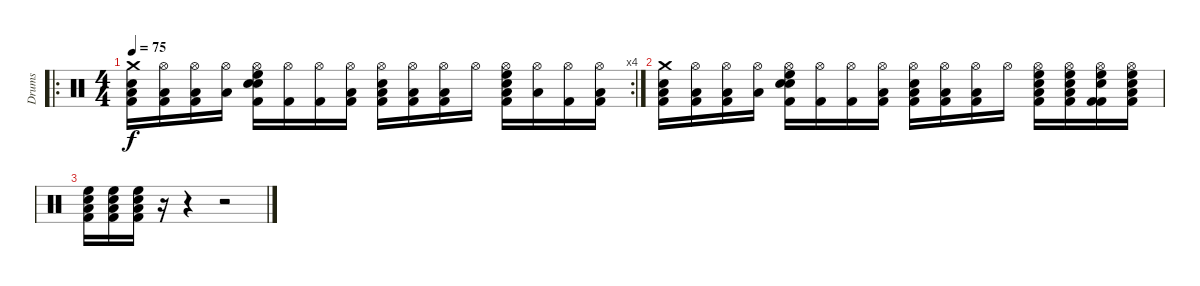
\track ("Drums" "Drums") {instrument percussion}
\staff {score}
\articulation defaults
\ro
\rc 4
\ts (4 4)
\tempo 75
\clef neutral
\ks c
("Crash medium (hit)" "Low Tom (hit)" "Snare (hit) 2" "Kick (hit) 2").16{dy f} ("Hi-Hat (open)" "Low Tom (hit)" "Kick (hit) 2").16 ("Hi-Hat (open)" "Low Tom (hit)" "Kick (hit) 2").16 ("Hi-Hat (open)" "Low Tom (hit)").16 ("High Floor Tom (hit)" "Hi-Hat (open)" "Snare (hit) 2" "Electric Snare (hit)" "Kick (hit) 2").16 ("Hi-Hat (open)" "Kick (hit) 2").16 ("Hi-Hat (open)" "Kick (hit) 2").16 ("Hi-Hat (open)" "Low Tom (hit)" "Kick (hit) 2").16 ("Hi-Hat (open)" "Snare (hit) 2" "Kick (hit) 2" "Low Tom (hit)").16 ("Hi-Hat (open)" "Low Tom (hit)" "Kick (hit) 2").16 ("Hi-Hat (open)" "Low Tom (hit)" "Kick (hit) 2").16 "Hi-Hat (open)".16 ("High Floor Tom (hit)" "Hi-Hat (open)" "Low Tom (hit)" "Electric Snare (hit)" "Kick (hit) 2").16 ("Hi-Hat (open)" "Low Tom (hit)").16 ("Hi-Hat (open)" "Kick (hit) 2").16 ("Hi-Hat (open)" "Low Tom (hit)" "Kick (hit) 2").16 |
("Crash medium (hit)" "Low Tom (hit)" "Snare (hit) 2" "Kick (hit) 2").16 ("Hi-Hat (open)" "Low Tom (hit)" "Kick (hit) 2").16 ("Hi-Hat (open)" "Low Tom (hit)" "Kick (hit) 2").16 ("Hi-Hat (open)" "Low Tom (hit)").16 ("High Floor Tom (hit)" "Hi-Hat (open)" "Snare (hit) 2" "Electric Snare (hit)" "Kick (hit) 2").16 ("Hi-Hat (open)" "Kick (hit) 2").16 ("Hi-Hat (open)" "Kick (hit) 2").16 ("Hi-Hat (open)" "Low Tom (hit)" "Kick (hit) 2").16 ("Hi-Hat (open)" "Snare (hit) 2" "Kick (hit) 2" "Low Tom (hit)").16 ("Hi-Hat (open)" "Low Tom (hit)" "Kick (hit) 2").16 ("Hi-Hat (open)" "Low Tom (hit)" "Kick (hit) 2").16 "Hi-Hat (open)".16 ("High Floor Tom (hit)" "Hi-Hat (open)" "Low Tom (hit)" "Electric Snare (hit)" "Kick (hit) 2").16 ("High Floor Tom (hit)" "Hi-Hat (open)" "Snare (hit) 2" "Low Tom (hit)" "Kick (hit) 2").16 ("High Floor Tom (hit)" "Hi-Hat (open)" "Snare (hit) 2" "Kick (hit) 2" "Kick (hit) 2").16 ("High Floor Tom (hit)" "Hi-Hat (open)" "Snare (hit) 2" "Low Tom (hit)" "Kick (hit) 2").16 |
("High Floor Tom (hit)" "Low Tom (hit)" "Snare (hit) 2" "Kick (hit) 2").16 ("High Floor Tom (hit)" "Low Tom (hit)" "Snare (hit) 2" "Kick (hit) 2").16 ("High Floor Tom (hit)" "Low Tom (hit)" "Snare (hit) 2" "Kick (hit) 2").16 r.16 r.4 r.2
